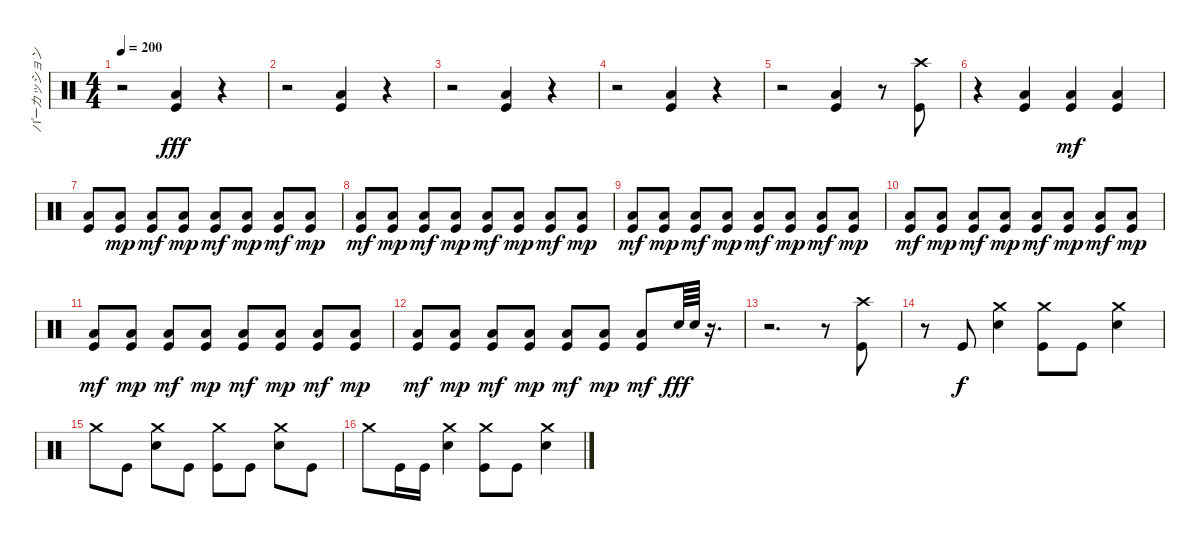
\track ("パーカッション" "パーカッション") {instrument percussion}
\staff {score}
\articulation defaults
\ts (4 4)
\tempo 200
\clef neutral
\ks c
r.2{dy fff} ("Low Floor Tom (hit)" "Kick (hit)").4 r.4 |
r.2 ("Low Floor Tom (hit)" "Kick (hit)").4 r.4 |
r.2 ("Low Floor Tom (hit)" "Kick (hit)").4 r.4 |
r.2 ("Low Floor Tom (hit)" "Kick (hit)").4 r.4 |
r.2 ("Low Floor Tom (hit)" "Kick (hit)").4 r.8 ("Crash high (hit)" "Kick (hit)").8 |
r.4 ("Low Floor Tom (hit)" "Kick (hit)").4 ("Kick (hit)" "Low Floor Tom (hit)").4{dy mf} ("Kick (hit)" "Low Floor Tom (hit)").4 |
("Kick (hit)" "Low Floor Tom (hit)").8 ("Kick (hit)" "Low Floor Tom (hit)").8{dy mp} ("Kick (hit)" "Low Floor Tom (hit)").8{dy mf} ("Kick (hit)" "Low Floor Tom (hit)").8{dy mp} ("Kick (hit)" "Low Floor Tom (hit)").8{dy mf} ("Kick (hit)" "Low Floor Tom (hit)").8{dy mp} ("Kick (hit)" "Low Floor Tom (hit)").8{dy mf} ("Kick (hit)" "Low Floor Tom (hit)").8{dy mp} |
("Kick (hit)" "Low Floor Tom (hit)").8{dy mf} ("Kick (hit)" "Low Floor Tom (hit)").8{dy mp} ("Kick (hit)" "Low Floor Tom (hit)").8{dy mf} ("Kick (hit)" "Low Floor Tom (hit)").8{dy mp} ("Kick (hit)" "Low Floor Tom (hit)").8{dy mf} ("Kick (hit)" "Low Floor Tom (hit)").8{dy mp} ("Kick (hit)" "Low Floor Tom (hit)").8{dy mf} ("Kick (hit)" "Low Floor Tom (hit)").8{dy mp} |
("Kick (hit)" "Low Floor Tom (hit)").8{dy mf} ("Kick (hit)" "Low Floor Tom (hit)").8{dy mp} ("Kick (hit)" "Low Floor Tom (hit)").8{dy mf} ("Kick (hit)" "Low Floor Tom (hit)").8{dy mp} ("Kick (hit)" "Low Floor Tom (hit)").8{dy mf} ("Kick (hit)" "Low Floor Tom (hit)").8{dy mp} ("Kick (hit)" "Low Floor Tom (hit)").8{dy mf} ("Kick (hit)" "Low Floor Tom (hit)").8{dy mp} |
("Kick (hit)" "Low Floor Tom (hit)").8{dy mf} ("Kick (hit)" "Low Floor Tom (hit)").8{dy mp} ("Kick (hit)" "Low Floor Tom (hit)").8{dy mf} ("Kick (hit)" "Low Floor Tom (hit)").8{dy mp} ("Kick (hit)" "Low Floor Tom (hit)").8{dy mf} ("Kick (hit)" "Low Floor Tom (hit)").8{dy mp} ("Kick (hit)" "Low Floor Tom (hit)").8{dy mf} ("Kick (hit)" "Low Floor Tom (hit)").8{dy mp} |
("Kick (hit)" "Low Floor Tom (hit)").8{dy mf} ("Kick (hit)" "Low Floor Tom (hit)").8{dy mp} ("Kick (hit)" "Low Floor Tom (hit)").8{dy mf} ("Kick (hit)" "Low Floor Tom (hit)").8{dy mp} ("Kick (hit)" "Low Floor Tom (hit)").8{dy mf} ("Kick (hit)" "Low Floor Tom (hit)").8{dy mp} ("Kick (hit)" "Low Floor Tom (hit)").8{dy mf} ("Kick (hit)" "Low Floor Tom (hit)").8{dy mp} |
("Kick (hit)" "Low Floor Tom (hit)").8{dy mf} ("Kick (hit)" "Low Floor Tom (hit)").8{dy mp} ("Kick (hit)" "Low Floor Tom (hit)").8{dy mf} ("Kick (hit)" "Low Floor Tom (hit)").8{dy mp} ("Kick (hit)" "Low Floor Tom (hit)").8{dy mf} ("Kick (hit)" "Low Floor Tom (hit)").8{dy mp} ("Kick (hit)" "Low Floor Tom (hit)").8{dy mf} "Snare (hit) 2".64{dy fff} "Snare (hit) 2".64 r.16{d} |
r.2{d} r.8 ("Crash high (hit)" "Kick (hit)").8 |
r.8 "Kick (hit)".8{dy f} ("Snare (hit) 2" "Crash medium (hit)").4 ("Crash medium (hit)" "Kick (hit)").8 "Kick (hit)".8 ("Snare (hit) 2" "Crash medium (hit)").4 |
"Crash medium (hit)".8 "Kick (hit)".8 ("Snare (hit) 2" "Crash medium (hit)").8 "Kick (hit)".8 ("Kick (hit)" "Crash medium (hit)").8 "Kick (hit)".8 ("Crash medium (hit)" "Snare (hit) 2").8 "Kick (hit)".8 |
"Crash medium (hit)".8 "Kick (hit)".16 "Kick (hit)".16 ("Snare (hit) 2" "Crash medium (hit)").4 ("Crash medium (hit)" "Kick (hit)").8 "Kick (hit)".8 ("Snare (hit) 2" "Crash medium (hit)").4
